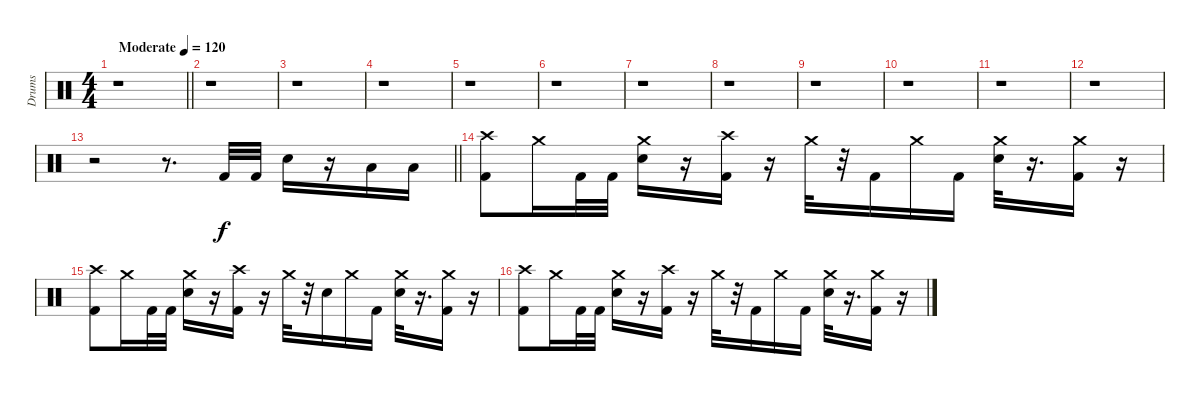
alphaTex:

\track ("Drums" "Drums") {instrument percussion}
\staff {score}
\articulation defaults
\ts (4 4)
\tempo (120 "Moderate")
\clef neutral
\barLineRight lightlight
\ks c
r.1{dy f} |
\section ("" " ")
r.1 |
r.1 |
r.1 |
r.1 |
r.1 |
r.1 |
r.1 |
r.1 |
r.1 |
r.1 |
r.1 |
\barLineRight lightlight
r.2 r.8{d} "Kick (hit) 2".32 "Kick (hit) 2".32 "Snare (hit) 2".16 r.16 "Low Tom (hit)".16 "Low Tom (hit)".16 |
\section ("" " ")
("Kick (hit) 2" "Crash high (hit)").8 "Crash medium (hit)".16 "Kick (hit) 2".32 "Kick (hit) 2".32 ("Snare (hit) 2" "Crash medium (hit)").16 r.16 ("Kick (hit) 2" "Crash high (hit)").16 r.16 "Crash medium (hit)".32 r.32 "Kick (hit) 2".16 "Crash medium (hit)".16 "Kick (hit) 2".16 ("Snare (hit) 2" "Crash medium (hit)").32 r.16{d} ("Kick (hit) 2" "Crash medium (hit)").16 r.16 |
("Kick (hit) 2" "Crash high (hit)").8 "Crash medium (hit)".16 "Kick (hit) 2".32 "Kick (hit) 2".32 ("Snare (hit) 2" "Crash medium (hit)").16 r.16 ("Kick (hit) 2" "Crash high (hit)").16 r.16 "Crash medium (hit)".32 r.32 "Snare (hit) 2".16 "Crash medium (hit)".16 "Kick (hit) 2".16 ("Snare (hit) 2" "Crash medium (hit)").32 r.16{d} ("Kick (hit) 2" "Crash medium (hit)").16 r.16 |
("Kick (hit) 2" "Crash high (hit)").8 "Crash medium (hit)".16 "Kick (hit) 2".32 "Kick (hit) 2".32 ("Snare (hit) 2" "Crash medium (hit)").16 r.16 ("Kick (hit) 2" "Crash high (hit)").16 r.16 "Crash medium (hit)".32 r.32 "Kick (hit) 2".16 "Crash medium (hit)".16 "Kick (hit) 2".16 ("Snare (hit) 2" "Crash medium (hit)").32 r.16{d} ("Kick (hit) 2" "Crash medium (hit)").16 r.16
